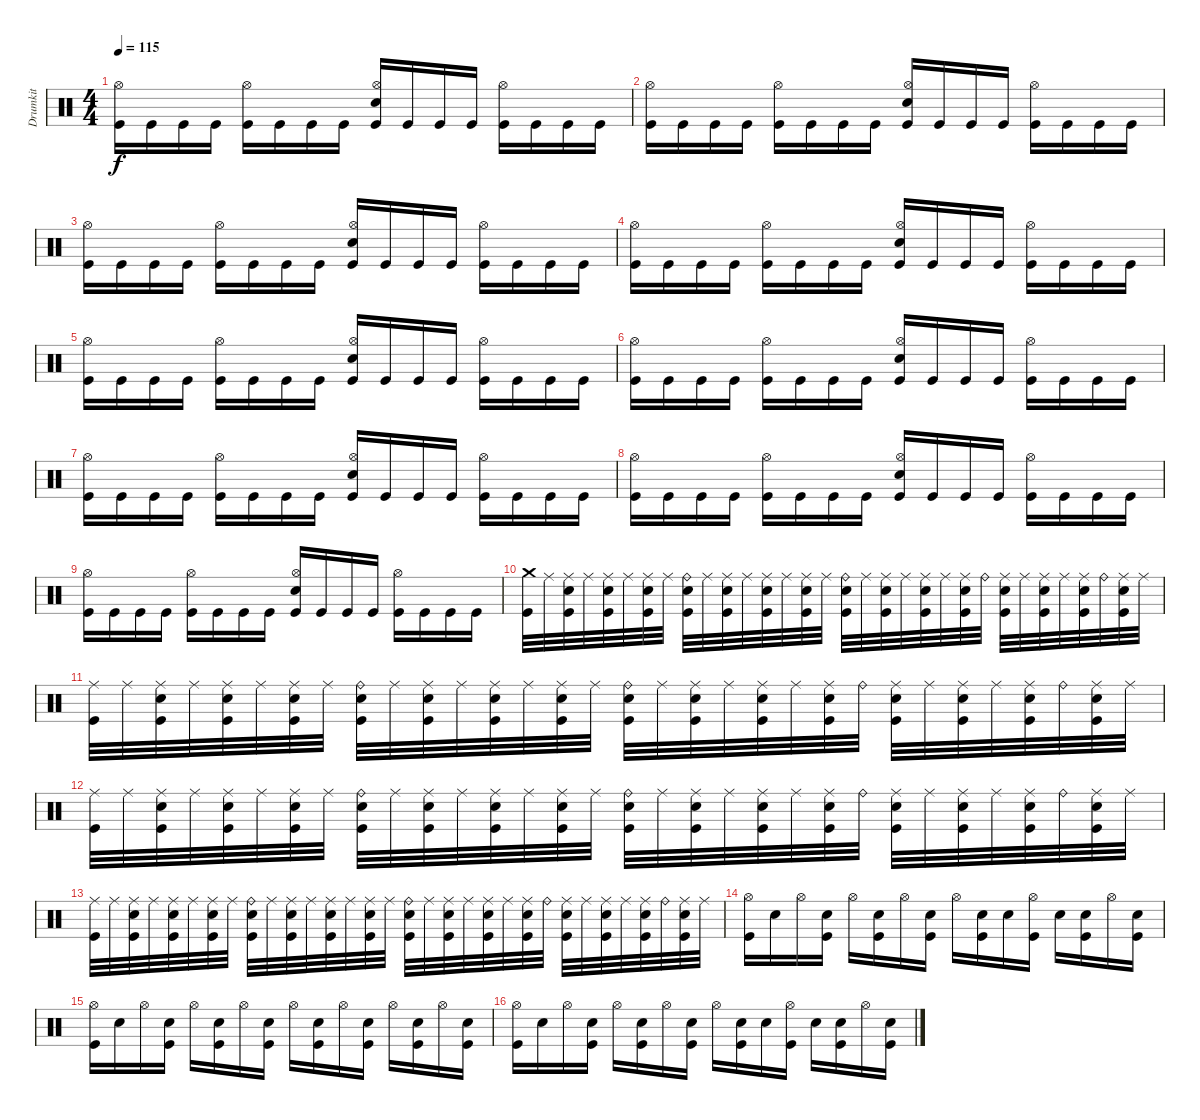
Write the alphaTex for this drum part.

\track ("Drumkit" "Drumkit") {instrument percussion}
\staff {score}
\articulation defaults
\ts (4 4)
\tempo 115
\clef neutral
\ks c
("Kick (hit)" "Hi-Hat (open)").16{dy f} "Kick (hit)".16 "Kick (hit)".16 "Kick (hit)".16 ("Kick (hit)" "Hi-Hat (open)").16 "Kick (hit)".16 "Kick (hit)".16 "Kick (hit)".16 ("Kick (hit)" "Snare (hit) 2" "Hi-Hat (open)").16 "Kick (hit)".16 "Kick (hit)".16 "Kick (hit)".16 ("Kick (hit)" "Hi-Hat (open)").16 "Kick (hit)".16 "Kick (hit)".16 "Kick (hit)".16 |
("Kick (hit)" "Hi-Hat (open)").16 "Kick (hit)".16 "Kick (hit)".16 "Kick (hit)".16 ("Kick (hit)" "Hi-Hat (open)").16 "Kick (hit)".16 "Kick (hit)".16 "Kick (hit)".16 ("Kick (hit)" "Snare (hit) 2" "Hi-Hat (open)").16 "Kick (hit)".16 "Kick (hit)".16 "Kick (hit)".16 ("Kick (hit)" "Hi-Hat (open)").16 "Kick (hit)".16 "Kick (hit)".16 "Kick (hit)".16 |
("Kick (hit)" "Hi-Hat (open)").16 "Kick (hit)".16 "Kick (hit)".16 "Kick (hit)".16 ("Kick (hit)" "Hi-Hat (open)").16 "Kick (hit)".16 "Kick (hit)".16 "Kick (hit)".16 ("Kick (hit)" "Snare (hit) 2" "Hi-Hat (open)").16 "Kick (hit)".16 "Kick (hit)".16 "Kick (hit)".16 ("Kick (hit)" "Hi-Hat (open)").16 "Kick (hit)".16 "Kick (hit)".16 "Kick (hit)".16 |
("Kick (hit)" "Hi-Hat (open)").16 "Kick (hit)".16 "Kick (hit)".16 "Kick (hit)".16 ("Kick (hit)" "Hi-Hat (open)").16 "Kick (hit)".16 "Kick (hit)".16 "Kick (hit)".16 ("Kick (hit)" "Snare (hit) 2" "Hi-Hat (open)").16 "Kick (hit)".16 "Kick (hit)".16 "Kick (hit)".16 ("Kick (hit)" "Hi-Hat (open)").16 "Kick (hit)".16 "Kick (hit)".16 "Kick (hit)".16 |
("Kick (hit)" "Hi-Hat (open)").16 "Kick (hit)".16 "Kick (hit)".16 "Kick (hit)".16 ("Kick (hit)" "Hi-Hat (open)").16 "Kick (hit)".16 "Kick (hit)".16 "Kick (hit)".16 ("Kick (hit)" "Snare (hit) 2" "Hi-Hat (open)").16 "Kick (hit)".16 "Kick (hit)".16 "Kick (hit)".16 ("Kick (hit)" "Hi-Hat (open)").16 "Kick (hit)".16 "Kick (hit)".16 "Kick (hit)".16 |
("Kick (hit)" "Hi-Hat (open)").16 "Kick (hit)".16 "Kick (hit)".16 "Kick (hit)".16 ("Kick (hit)" "Hi-Hat (open)").16 "Kick (hit)".16 "Kick (hit)".16 "Kick (hit)".16 ("Kick (hit)" "Snare (hit) 2" "Hi-Hat (open)").16 "Kick (hit)".16 "Kick (hit)".16 "Kick (hit)".16 ("Kick (hit)" "Hi-Hat (open)").16 "Kick (hit)".16 "Kick (hit)".16 "Kick (hit)".16 |
("Kick (hit)" "Hi-Hat (open)").16 "Kick (hit)".16 "Kick (hit)".16 "Kick (hit)".16 ("Kick (hit)" "Hi-Hat (open)").16 "Kick (hit)".16 "Kick (hit)".16 "Kick (hit)".16 ("Kick (hit)" "Snare (hit) 2" "Hi-Hat (open)").16 "Kick (hit)".16 "Kick (hit)".16 "Kick (hit)".16 ("Kick (hit)" "Hi-Hat (open)").16 "Kick (hit)".16 "Kick (hit)".16 "Kick (hit)".16 |
("Kick (hit)" "Hi-Hat (open)").16 "Kick (hit)".16 "Kick (hit)".16 "Kick (hit)".16 ("Kick (hit)" "Hi-Hat (open)").16 "Kick (hit)".16 "Kick (hit)".16 "Kick (hit)".16 ("Kick (hit)" "Snare (hit) 2" "Hi-Hat (open)").16 "Kick (hit)".16 "Kick (hit)".16 "Kick (hit)".16 ("Kick (hit)" "Hi-Hat (open)").16 "Kick (hit)".16 "Kick (hit)".16 "Kick (hit)".16 |
("Kick (hit)" "Hi-Hat (open)").16 "Kick (hit)".16 "Kick (hit)".16 "Kick (hit)".16 ("Kick (hit)" "Hi-Hat (open)").16 "Kick (hit)".16 "Kick (hit)".16 "Kick (hit)".16 ("Kick (hit)" "Snare (hit) 2" "Hi-Hat (open)").16 "Kick (hit)".16 "Kick (hit)".16 "Kick (hit)".16 ("Kick (hit)" "Hi-Hat (open)").16 "Kick (hit)".16 "Kick (hit)".16 "Kick (hit)".16 |
("Kick (hit)" "Crash medium (hit)").32 "Ride (middle)".32 ("Kick (hit)" "Snare (hit) 2" "Ride (middle)").32 "Ride (middle)".32 ("Kick (hit)" "Snare (hit) 2" "Ride (middle)").32 "Ride (middle)".32 ("Kick (hit)" "Snare (hit) 2" "Ride (middle)").32 "Ride (middle)".32 ("Kick (hit)" "Snare (hit) 2" "Ride (bell)").32 "Ride (middle)".32 ("Kick (hit)" "Snare (hit) 2" "Ride (middle)").32 "Ride (middle)".32 ("Kick (hit)" "Snare (hit) 2" "Ride (middle)").32 "Ride (middle)".32 ("Kick (hit)" "Snare (hit) 2" "Ride (middle)").32 "Ride (middle)".32 ("Kick (hit)" "Snare (hit) 2" "Ride (bell)").32 "Ride (middle)".32 ("Kick (hit)" "Snare (hit) 2" "Ride (middle)").32 "Ride (middle)".32 ("Kick (hit)" "Snare (hit) 2" "Ride (middle)").32 "Ride (middle)".32 ("Kick (hit)" "Snare (hit) 2" "Ride (middle)").32 "Ride (bell)".32 ("Kick (hit)" "Snare (hit) 2" "Ride (middle)").32 "Ride (middle)".32 ("Kick (hit)" "Snare (hit) 2" "Ride (middle)").32 "Ride (middle)".32 ("Kick (hit)" "Snare (hit) 2" "Ride (middle)").32 "Ride (bell)".32 ("Kick (hit)" "Snare (hit) 2" "Ride (middle)").32 "Ride (middle)".32 |
("Kick (hit)" "Ride (middle)").32 "Ride (middle)".32 ("Kick (hit)" "Snare (hit) 2" "Ride (middle)").32 "Ride (middle)".32 ("Kick (hit)" "Snare (hit) 2" "Ride (middle)").32 "Ride (middle)".32 ("Kick (hit)" "Snare (hit) 2" "Ride (middle)").32 "Ride (middle)".32 ("Kick (hit)" "Snare (hit) 2" "Ride (bell)").32 "Ride (middle)".32 ("Kick (hit)" "Snare (hit) 2" "Ride (middle)").32 "Ride (middle)".32 ("Kick (hit)" "Snare (hit) 2" "Ride (middle)").32 "Ride (middle)".32 ("Kick (hit)" "Snare (hit) 2" "Ride (middle)").32 "Ride (middle)".32 ("Kick (hit)" "Snare (hit) 2" "Ride (bell)").32 "Ride (middle)".32 ("Kick (hit)" "Snare (hit) 2" "Ride (middle)").32 "Ride (middle)".32 ("Kick (hit)" "Snare (hit) 2" "Ride (middle)").32 "Ride (middle)".32 ("Kick (hit)" "Snare (hit) 2" "Ride (middle)").32 "Ride (bell)".32 ("Kick (hit)" "Snare (hit) 2" "Ride (middle)").32 "Ride (middle)".32 ("Kick (hit)" "Snare (hit) 2" "Ride (middle)").32 "Ride (middle)".32 ("Kick (hit)" "Snare (hit) 2" "Ride (middle)").32 "Ride (bell)".32 ("Kick (hit)" "Snare (hit) 2" "Ride (middle)").32 "Ride (middle)".32 |
("Kick (hit)" "Ride (middle)").32 "Ride (middle)".32 ("Kick (hit)" "Snare (hit) 2" "Ride (middle)").32 "Ride (middle)".32 ("Kick (hit)" "Snare (hit) 2" "Ride (middle)").32 "Ride (middle)".32 ("Kick (hit)" "Snare (hit) 2" "Ride (middle)").32 "Ride (middle)".32 ("Kick (hit)" "Snare (hit) 2" "Ride (bell)").32 "Ride (middle)".32 ("Kick (hit)" "Snare (hit) 2" "Ride (middle)").32 "Ride (middle)".32 ("Kick (hit)" "Snare (hit) 2" "Ride (middle)").32 "Ride (middle)".32 ("Kick (hit)" "Snare (hit) 2" "Ride (middle)").32 "Ride (middle)".32 ("Kick (hit)" "Snare (hit) 2" "Ride (bell)").32 "Ride (middle)".32 ("Kick (hit)" "Snare (hit) 2" "Ride (middle)").32 "Ride (middle)".32 ("Kick (hit)" "Snare (hit) 2" "Ride (middle)").32 "Ride (middle)".32 ("Kick (hit)" "Snare (hit) 2" "Ride (middle)").32 "Ride (bell)".32 ("Kick (hit)" "Snare (hit) 2" "Ride (middle)").32 "Ride (middle)".32 ("Kick (hit)" "Snare (hit) 2" "Ride (middle)").32 "Ride (middle)".32 ("Kick (hit)" "Snare (hit) 2" "Ride (middle)").32 "Ride (bell)".32 ("Kick (hit)" "Snare (hit) 2" "Ride (middle)").32 "Ride (middle)".32 |
("Kick (hit)" "Ride (middle)").32 "Ride (middle)".32 ("Kick (hit)" "Snare (hit) 2" "Ride (middle)").32 "Ride (middle)".32 ("Kick (hit)" "Snare (hit) 2" "Ride (middle)").32 "Ride (middle)".32 ("Kick (hit)" "Snare (hit) 2" "Ride (middle)").32 "Ride (middle)".32 ("Kick (hit)" "Snare (hit) 2" "Ride (bell)").32 "Ride (middle)".32 ("Kick (hit)" "Snare (hit) 2" "Ride (middle)").32 "Ride (middle)".32 ("Kick (hit)" "Snare (hit) 2" "Ride (middle)").32 "Ride (middle)".32 ("Kick (hit)" "Snare (hit) 2" "Ride (middle)").32 "Ride (middle)".32 ("Kick (hit)" "Snare (hit) 2" "Ride (bell)").32 "Ride (middle)".32 ("Kick (hit)" "Snare (hit) 2" "Ride (middle)").32 "Ride (middle)".32 ("Kick (hit)" "Snare (hit) 2" "Ride (middle)").32 "Ride (middle)".32 ("Kick (hit)" "Snare (hit) 2" "Ride (middle)").32 "Ride (bell)".32 ("Kick (hit)" "Snare (hit) 2" "Ride (middle)").32 "Ride (middle)".32 ("Kick (hit)" "Snare (hit) 2" "Ride (middle)").32 "Ride (middle)".32 ("Kick (hit)" "Snare (hit) 2" "Ride (middle)").32 "Ride (bell)".32 ("Kick (hit)" "Snare (hit) 2" "Ride (middle)").32 "Ride (middle)".32 |
("Kick (hit)" "Hi-Hat (open)").16 "Snare (hit) 2".16 "Hi-Hat (open)".16 ("Kick (hit)" "Snare (hit) 2").16 "Hi-Hat (open)".16 ("Kick (hit)" "Snare (hit) 2").16 "Hi-Hat (open)".16 ("Kick (hit)" "Snare (hit) 2").16 "Hi-Hat (open)".16 ("Kick (hit)" "Snare (hit) 2").16 "Snare (hit) 2".16 ("Kick (hit)" "Hi-Hat (open)").16 "Snare (hit) 2".16 ("Kick (hit)" "Snare (hit) 2").16 "Hi-Hat (open)".16 ("Kick (hit)" "Snare (hit) 2").16 |
("Kick (hit)" "Hi-Hat (open)").16 "Snare (hit) 2".16 "Hi-Hat (open)".16 ("Kick (hit)" "Snare (hit) 2").16 "Hi-Hat (open)".16 ("Kick (hit)" "Snare (hit) 2").16 "Hi-Hat (open)".16 ("Kick (hit)" "Snare (hit) 2").16 "Hi-Hat (open)".16 ("Kick (hit)" "Snare (hit) 2").16 "Hi-Hat (open)".16 ("Kick (hit)" "Snare (hit) 2").16 "Hi-Hat (open)".16 ("Kick (hit)" "Snare (hit) 2").16 "Hi-Hat (open)".16 ("Kick (hit)" "Snare (hit) 2").16 |
("Kick (hit)" "Hi-Hat (open)").16 "Snare (hit) 2".16 "Hi-Hat (open)".16 ("Kick (hit)" "Snare (hit) 2").16 "Hi-Hat (open)".16 ("Kick (hit)" "Snare (hit) 2").16 "Hi-Hat (open)".16 ("Kick (hit)" "Snare (hit) 2").16 "Hi-Hat (open)".16 ("Kick (hit)" "Snare (hit) 2").16 "Snare (hit) 2".16 ("Kick (hit)" "Hi-Hat (open)").16 "Snare (hit) 2".16 ("Kick (hit)" "Snare (hit) 2").16 "Hi-Hat (open)".16 ("Kick (hit)" "Snare (hit) 2").16
